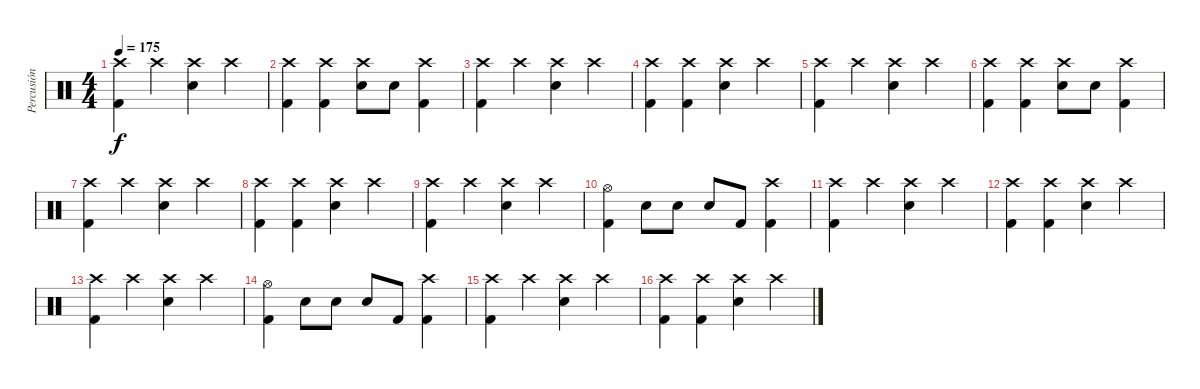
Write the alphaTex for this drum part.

\track ("Percusión" "Percusión") {instrument percussion}
\staff {score}
\articulation defaults
\ts (4 4)
\tempo 175
\clef neutral
\ks c
("Crash high (hit)" "Kick (hit) 2").4{dy f} "Crash high (hit)".4 ("Crash high (hit)" "Snare (hit) 2").4 "Crash high (hit)".4 |
("Crash high (hit)" "Kick (hit) 2").4 ("Crash high (hit)" "Kick (hit) 2").4 ("Crash high (hit)" "Snare (hit) 2").8 "Snare (hit) 2".8 ("Crash high (hit)" "Kick (hit) 2").4 |
("Crash high (hit)" "Kick (hit) 2").4 "Crash high (hit)".4 ("Crash high (hit)" "Snare (hit) 2").4 "Crash high (hit)".4 |
("Crash high (hit)" "Kick (hit) 2").4 ("Crash high (hit)" "Kick (hit) 2").4 ("Crash high (hit)" "Snare (hit) 2").4 "Crash high (hit)".4 |
("Crash high (hit)" "Kick (hit) 2").4 "Crash high (hit)".4 ("Crash high (hit)" "Snare (hit) 2").4 "Crash high (hit)".4 |
("Crash high (hit)" "Kick (hit) 2").4 ("Crash high (hit)" "Kick (hit) 2").4 ("Crash high (hit)" "Snare (hit) 2").8 "Snare (hit) 2".8 ("Crash high (hit)" "Kick (hit) 2").4 |
("Crash high (hit)" "Kick (hit) 2").4 "Crash high (hit)".4 ("Crash high (hit)" "Snare (hit) 2").4 "Crash high (hit)".4 |
("Crash high (hit)" "Kick (hit) 2").4 ("Crash high (hit)" "Kick (hit) 2").4 ("Crash high (hit)" "Snare (hit) 2").4 "Crash high (hit)".4 |
("Crash high (hit)" "Kick (hit) 2").4 "Crash high (hit)".4 ("Crash high (hit)" "Snare (hit) 2").4 "Crash high (hit)".4 |
("Hi-Hat (open)" "Kick (hit) 2").4 "Snare (hit) 2".8 "Snare (hit) 2".8 "Snare (hit) 2".8 "Kick (hit) 2".8 ("Crash high (hit)" "Kick (hit) 2").4 |
("Crash high (hit)" "Kick (hit) 2").4 "Crash high (hit)".4 ("Crash high (hit)" "Snare (hit) 2").4 "Crash high (hit)".4 |
("Crash high (hit)" "Kick (hit) 2").4 ("Crash high (hit)" "Kick (hit) 2").4 ("Crash high (hit)" "Snare (hit) 2").4 "Crash high (hit)".4 |
("Crash high (hit)" "Kick (hit) 2").4 "Crash high (hit)".4 ("Crash high (hit)" "Snare (hit) 2").4 "Crash high (hit)".4 |
("Hi-Hat (open)" "Kick (hit) 2").4 "Snare (hit) 2".8 "Snare (hit) 2".8 "Snare (hit) 2".8 "Kick (hit) 2".8 ("Crash high (hit)" "Kick (hit) 2").4 |
("Crash high (hit)" "Kick (hit) 2").4 "Crash high (hit)".4 ("Crash high (hit)" "Snare (hit) 2").4 "Crash high (hit)".4 |
("Crash high (hit)" "Kick (hit) 2").4 ("Crash high (hit)" "Kick (hit) 2").4 ("Crash high (hit)" "Snare (hit) 2").4 "Crash high (hit)".4
